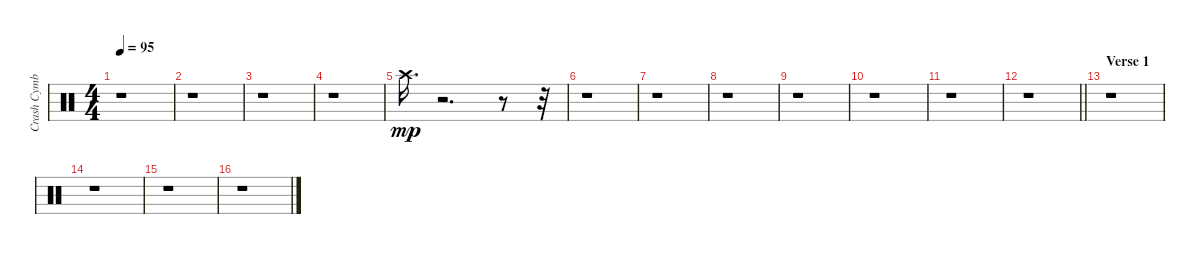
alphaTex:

\track ("Crash Cymbal" "Crash Cymb") {instrument percussion}
\staff {score}
\articulation defaults
\ts (4 4)
\tempo 95
\clef neutral
\ks c
r.1{dy mp} |
r.1 |
r.1 |
r.1 |
"Crash high (hit)".16{d} r.2{d} r.8 r.32 |
r.1 |
r.1 |
r.1 |
r.1 |
r.1 |
r.1 |
\barLineRight lightlight
r.1 |
\section ("" "Verse 1")
r.1 |
r.1 |
r.1 |
r.1
